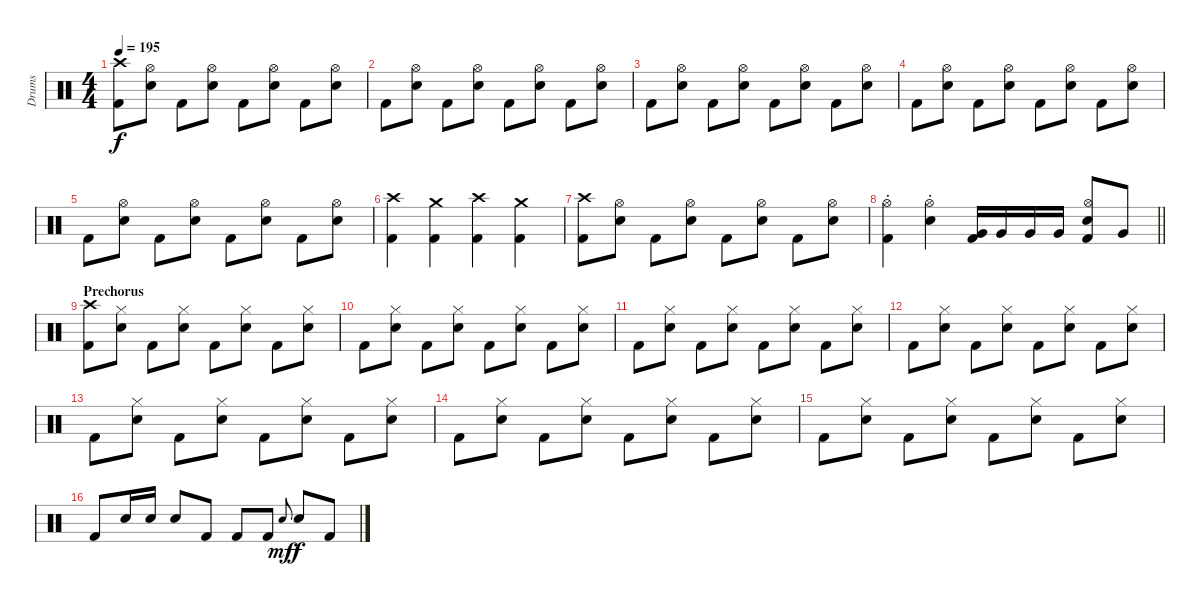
\track ("Drums" "Drums") {instrument percussion}
\staff {score}
\articulation defaults
\ts (4 4)
\tempo 195
\clef neutral
\ks c
("Crash high (hit)" "Kick (hit) 2").8{dy f} ("Hi-Hat (open)" "Snare (hit) 2").8 "Kick (hit) 2".8 ("Hi-Hat (open)" "Snare (hit) 2").8 "Kick (hit) 2".8 ("Hi-Hat (open)" "Snare (hit) 2").8 "Kick (hit) 2".8 ("Hi-Hat (open)" "Snare (hit) 2").8 |
"Kick (hit) 2".8 ("Hi-Hat (open)" "Snare (hit) 2").8 "Kick (hit) 2".8 ("Hi-Hat (open)" "Snare (hit) 2").8 "Kick (hit) 2".8 ("Hi-Hat (open)" "Snare (hit) 2").8 "Kick (hit) 2".8 ("Hi-Hat (open)" "Snare (hit) 2").8 |
"Kick (hit) 2".8 ("Hi-Hat (open)" "Snare (hit) 2").8 "Kick (hit) 2".8 ("Hi-Hat (open)" "Snare (hit) 2").8 "Kick (hit) 2".8 ("Hi-Hat (open)" "Snare (hit) 2").8 "Kick (hit) 2".8 ("Hi-Hat (open)" "Snare (hit) 2").8 |
"Kick (hit) 2".8 ("Hi-Hat (open)" "Snare (hit) 2").8 "Kick (hit) 2".8 ("Hi-Hat (open)" "Snare (hit) 2").8 "Kick (hit) 2".8 ("Hi-Hat (open)" "Snare (hit) 2").8 "Kick (hit) 2".8 ("Hi-Hat (open)" "Snare (hit) 2").8 |
"Kick (hit) 2".8 ("Hi-Hat (open)" "Snare (hit) 2").8 "Kick (hit) 2".8 ("Hi-Hat (open)" "Snare (hit) 2").8 "Kick (hit) 2".8 ("Hi-Hat (open)" "Snare (hit) 2").8 "Kick (hit) 2".8 ("Hi-Hat (open)" "Snare (hit) 2").8 |
("Crash high (hit)" "Kick (hit) 2").4 ("Crash medium (hit)" "Kick (hit) 2").4 ("Crash high (hit)" "Kick (hit) 2").4 ("Crash medium (hit)" "Kick (hit) 2").4 |
("Crash high (hit)" "Kick (hit) 2").8 ("Hi-Hat (open)" "Snare (hit) 2").8 "Kick (hit) 2".8 ("Hi-Hat (open)" "Snare (hit) 2").8 "Kick (hit) 2".8 ("Hi-Hat (open)" "Snare (hit) 2").8 "Kick (hit) 2".8 ("Hi-Hat (open)" "Snare (hit) 2").8 |
\barLineRight lightlight
("Hi-Hat (open)"{st} "Kick (hit) 2"{st}).4 ("Hi-Hat (open)"{st} "Snare (hit) 2"{st}).4 ("Very Low Tom (hit)" "Kick (hit) 2").16 "Very Low Tom (hit)".16 "Very Low Tom (hit)".16 "Very Low Tom (hit)".16 ("Hi-Hat (open)" "Snare (hit) 2" "Kick (hit) 2").8 "Very Low Tom (hit)".8 |
\section ("" "Prechorus")
("Crash high (hit)" "Kick (hit) 2").8 ("Hi-Hat (closed)" "Snare (hit) 2").8 "Kick (hit) 2".8 ("Hi-Hat (closed)" "Snare (hit) 2").8 "Kick (hit) 2".8 ("Hi-Hat (closed)" "Snare (hit) 2").8 "Kick (hit) 2".8 ("Hi-Hat (closed)" "Snare (hit) 2").8 |
"Kick (hit) 2".8 ("Hi-Hat (closed)" "Snare (hit) 2").8 "Kick (hit) 2".8 ("Hi-Hat (closed)" "Snare (hit) 2").8 "Kick (hit) 2".8 ("Hi-Hat (closed)" "Snare (hit) 2").8 "Kick (hit) 2".8 ("Hi-Hat (closed)" "Snare (hit) 2").8 |
"Kick (hit) 2".8 ("Hi-Hat (closed)" "Snare (hit) 2").8 "Kick (hit) 2".8 ("Hi-Hat (closed)" "Snare (hit) 2").8 "Kick (hit) 2".8 ("Hi-Hat (closed)" "Snare (hit) 2").8 "Kick (hit) 2".8 ("Hi-Hat (closed)" "Snare (hit) 2").8 |
"Kick (hit) 2".8 ("Hi-Hat (closed)" "Snare (hit) 2").8 "Kick (hit) 2".8 ("Hi-Hat (closed)" "Snare (hit) 2").8 "Kick (hit) 2".8 ("Hi-Hat (closed)" "Snare (hit) 2").8 "Kick (hit) 2".8 ("Hi-Hat (closed)" "Snare (hit) 2").8 |
"Kick (hit) 2".8 ("Hi-Hat (closed)" "Snare (hit) 2").8 "Kick (hit) 2".8 ("Hi-Hat (closed)" "Snare (hit) 2").8 "Kick (hit) 2".8 ("Hi-Hat (closed)" "Snare (hit) 2").8 "Kick (hit) 2".8 ("Hi-Hat (closed)" "Snare (hit) 2").8 |
"Kick (hit) 2".8 ("Hi-Hat (closed)" "Snare (hit) 2").8 "Kick (hit) 2".8 ("Hi-Hat (closed)" "Snare (hit) 2").8 "Kick (hit) 2".8 ("Hi-Hat (closed)" "Snare (hit) 2").8 "Kick (hit) 2".8 ("Hi-Hat (closed)" "Snare (hit) 2").8 |
"Kick (hit) 2".8 ("Hi-Hat (closed)" "Snare (hit) 2").8 "Kick (hit) 2".8 ("Hi-Hat (closed)" "Snare (hit) 2").8 "Kick (hit) 2".8 ("Hi-Hat (closed)" "Snare (hit) 2").8 "Kick (hit) 2".8 ("Hi-Hat (closed)" "Snare (hit) 2").8 |
"Kick (hit) 2".8 "Snare (hit) 2".16 "Snare (hit) 2".16 "Snare (hit) 2".8 "Kick (hit) 2".8 "Kick (hit) 2".8 "Kick (hit) 2".8 "Snare (hit) 2".8{gr onbeat dy mf} "Snare (hit) 2".8{dy f} "Kick (hit) 2".8
